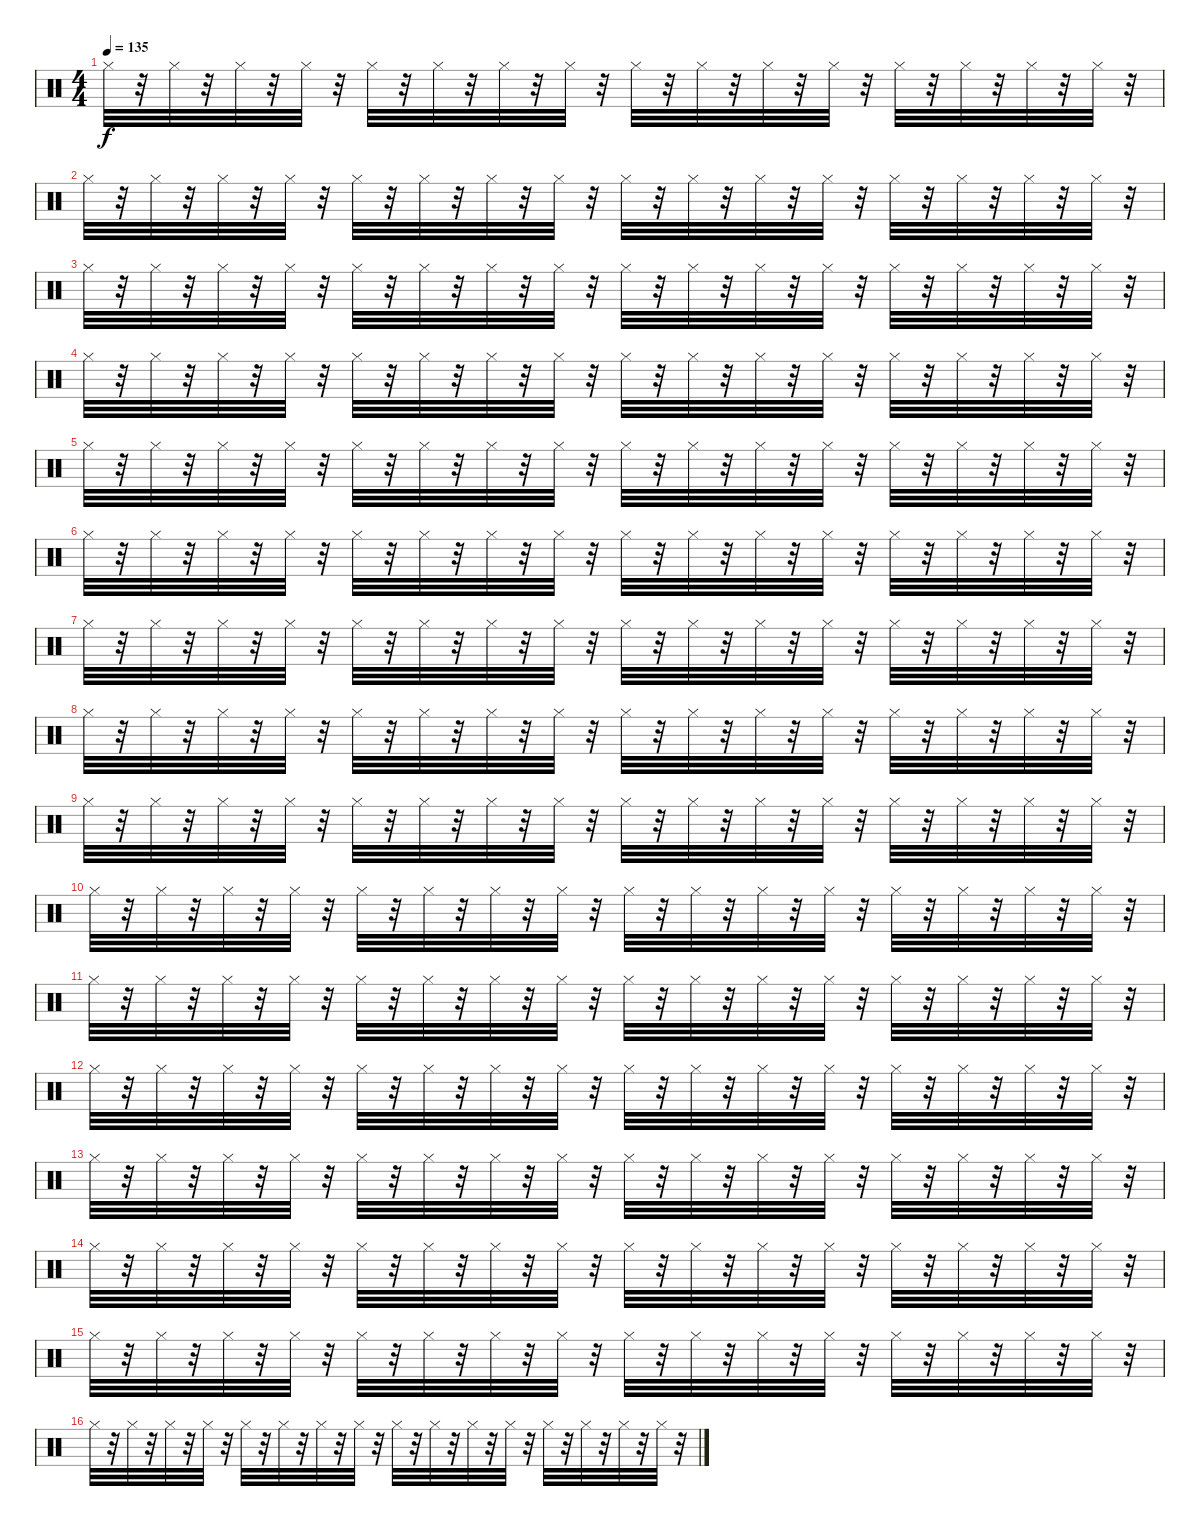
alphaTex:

\track "" {instrument percussion}
\staff {score}
\articulation defaults
\ts (4 4)
\tempo 135
\clef neutral
\ks c "Hi-Hat (closed)".32{dy f}
r.32 "Hi-Hat (closed)".32 r.32 "Hi-Hat (closed)".32 r.32 "Hi-Hat (closed)".32 r.32 "Hi-Hat (closed)".32 r.32 "Hi-Hat (closed)".32 r.32 "Hi-Hat (closed)".32 r.32 "Hi-Hat (closed)".32 r.32 "Hi-Hat (closed)".32 r.32 "Hi-Hat (closed)".32 r.32 "Hi-Hat (closed)".32 r.32 "Hi-Hat (closed)".32 r.32 "Hi-Hat (closed)".32 r.32 "Hi-Hat (closed)".32 r.32 "Hi-Hat (closed)".32 r.32 "Hi-Hat (closed)".32 r.32 |
"Hi-Hat (closed)".32 r.32 "Hi-Hat (closed)".32 r.32 "Hi-Hat (closed)".32 r.32 "Hi-Hat (closed)".32 r.32 "Hi-Hat (closed)".32 r.32 "Hi-Hat (closed)".32 r.32 "Hi-Hat (closed)".32 r.32 "Hi-Hat (closed)".32 r.32 "Hi-Hat (closed)".32 r.32 "Hi-Hat (closed)".32 r.32 "Hi-Hat (closed)".32 r.32 "Hi-Hat (closed)".32 r.32 "Hi-Hat (closed)".32 r.32 "Hi-Hat (closed)".32 r.32 "Hi-Hat (closed)".32 r.32 "Hi-Hat (closed)".32 r.32 |
"Hi-Hat (closed)".32 r.32 "Hi-Hat (closed)".32 r.32 "Hi-Hat (closed)".32 r.32 "Hi-Hat (closed)".32 r.32 "Hi-Hat (closed)".32 r.32 "Hi-Hat (closed)".32 r.32 "Hi-Hat (closed)".32 r.32 "Hi-Hat (closed)".32 r.32 "Hi-Hat (closed)".32 r.32 "Hi-Hat (closed)".32 r.32 "Hi-Hat (closed)".32 r.32 "Hi-Hat (closed)".32 r.32 "Hi-Hat (closed)".32 r.32 "Hi-Hat (closed)".32 r.32 "Hi-Hat (closed)".32 r.32 "Hi-Hat (closed)".32 r.32 |
"Hi-Hat (closed)".32 r.32 "Hi-Hat (closed)".32 r.32 "Hi-Hat (closed)".32 r.32 "Hi-Hat (closed)".32 r.32 "Hi-Hat (closed)".32 r.32 "Hi-Hat (closed)".32 r.32 "Hi-Hat (closed)".32 r.32 "Hi-Hat (closed)".32 r.32 "Hi-Hat (closed)".32 r.32 "Hi-Hat (closed)".32 r.32 "Hi-Hat (closed)".32 r.32 "Hi-Hat (closed)".32 r.32 "Hi-Hat (closed)".32 r.32 "Hi-Hat (closed)".32 r.32 "Hi-Hat (closed)".32 r.32 "Hi-Hat (closed)".32 r.32 |
"Hi-Hat (closed)".32 r.32 "Hi-Hat (closed)".32 r.32 "Hi-Hat (closed)".32 r.32 "Hi-Hat (closed)".32 r.32 "Hi-Hat (closed)".32 r.32 "Hi-Hat (closed)".32 r.32 "Hi-Hat (closed)".32 r.32 "Hi-Hat (closed)".32 r.32 "Hi-Hat (closed)".32 r.32 "Hi-Hat (closed)".32 r.32 "Hi-Hat (closed)".32 r.32 "Hi-Hat (closed)".32 r.32 "Hi-Hat (closed)".32 r.32 "Hi-Hat (closed)".32 r.32 "Hi-Hat (closed)".32 r.32 "Hi-Hat (closed)".32 r.32 |
"Hi-Hat (closed)".32 r.32 "Hi-Hat (closed)".32 r.32 "Hi-Hat (closed)".32 r.32 "Hi-Hat (closed)".32 r.32 "Hi-Hat (closed)".32 r.32 "Hi-Hat (closed)".32 r.32 "Hi-Hat (closed)".32 r.32 "Hi-Hat (closed)".32 r.32 "Hi-Hat (closed)".32 r.32 "Hi-Hat (closed)".32 r.32 "Hi-Hat (closed)".32 r.32 "Hi-Hat (closed)".32 r.32 "Hi-Hat (closed)".32 r.32 "Hi-Hat (closed)".32 r.32 "Hi-Hat (closed)".32 r.32 "Hi-Hat (closed)".32 r.32 |
"Hi-Hat (closed)".32 r.32 "Hi-Hat (closed)".32 r.32 "Hi-Hat (closed)".32 r.32 "Hi-Hat (closed)".32 r.32 "Hi-Hat (closed)".32 r.32 "Hi-Hat (closed)".32 r.32 "Hi-Hat (closed)".32 r.32 "Hi-Hat (closed)".32 r.32 "Hi-Hat (closed)".32 r.32 "Hi-Hat (closed)".32 r.32 "Hi-Hat (closed)".32 r.32 "Hi-Hat (closed)".32 r.32 "Hi-Hat (closed)".32 r.32 "Hi-Hat (closed)".32 r.32 "Hi-Hat (closed)".32 r.32 "Hi-Hat (closed)".32 r.32 |
"Hi-Hat (closed)".32 r.32 "Hi-Hat (closed)".32 r.32 "Hi-Hat (closed)".32 r.32 "Hi-Hat (closed)".32 r.32 "Hi-Hat (closed)".32 r.32 "Hi-Hat (closed)".32 r.32 "Hi-Hat (closed)".32 r.32 "Hi-Hat (closed)".32 r.32 "Hi-Hat (closed)".32 r.32 "Hi-Hat (closed)".32 r.32 "Hi-Hat (closed)".32 r.32 "Hi-Hat (closed)".32 r.32 "Hi-Hat (closed)".32 r.32 "Hi-Hat (closed)".32 r.32 "Hi-Hat (closed)".32 r.32 "Hi-Hat (closed)".32 r.32 |
"Hi-Hat (closed)".32 r.32 "Hi-Hat (closed)".32 r.32 "Hi-Hat (closed)".32 r.32 "Hi-Hat (closed)".32 r.32 "Hi-Hat (closed)".32 r.32 "Hi-Hat (closed)".32 r.32 "Hi-Hat (closed)".32 r.32 "Hi-Hat (closed)".32 r.32 "Hi-Hat (closed)".32 r.32 "Hi-Hat (closed)".32 r.32 "Hi-Hat (closed)".32 r.32 "Hi-Hat (closed)".32 r.32 "Hi-Hat (closed)".32 r.32 "Hi-Hat (closed)".32 r.32 "Hi-Hat (closed)".32 r.32 "Hi-Hat (closed)".32 r.32 |
"Hi-Hat (closed)".32 r.32 "Hi-Hat (closed)".32 r.32 "Hi-Hat (closed)".32 r.32 "Hi-Hat (closed)".32 r.32 "Hi-Hat (closed)".32 r.32 "Hi-Hat (closed)".32 r.32 "Hi-Hat (closed)".32 r.32 "Hi-Hat (closed)".32 r.32 "Hi-Hat (closed)".32 r.32 "Hi-Hat (closed)".32 r.32 "Hi-Hat (closed)".32 r.32 "Hi-Hat (closed)".32 r.32 "Hi-Hat (closed)".32 r.32 "Hi-Hat (closed)".32 r.32 "Hi-Hat (closed)".32 r.32 "Hi-Hat (closed)".32 r.32 |
"Hi-Hat (closed)".32 r.32 "Hi-Hat (closed)".32 r.32 "Hi-Hat (closed)".32 r.32 "Hi-Hat (closed)".32 r.32 "Hi-Hat (closed)".32 r.32 "Hi-Hat (closed)".32 r.32 "Hi-Hat (closed)".32 r.32 "Hi-Hat (closed)".32 r.32 "Hi-Hat (closed)".32 r.32 "Hi-Hat (closed)".32 r.32 "Hi-Hat (closed)".32 r.32 "Hi-Hat (closed)".32 r.32 "Hi-Hat (closed)".32 r.32 "Hi-Hat (closed)".32 r.32 "Hi-Hat (closed)".32 r.32 "Hi-Hat (closed)".32 r.32 |
"Hi-Hat (closed)".32 r.32 "Hi-Hat (closed)".32 r.32 "Hi-Hat (closed)".32 r.32 "Hi-Hat (closed)".32 r.32 "Hi-Hat (closed)".32 r.32 "Hi-Hat (closed)".32 r.32 "Hi-Hat (closed)".32 r.32 "Hi-Hat (closed)".32 r.32 "Hi-Hat (closed)".32 r.32 "Hi-Hat (closed)".32 r.32 "Hi-Hat (closed)".32 r.32 "Hi-Hat (closed)".32 r.32 "Hi-Hat (closed)".32 r.32 "Hi-Hat (closed)".32 r.32 "Hi-Hat (closed)".32 r.32 "Hi-Hat (closed)".32 r.32 |
"Hi-Hat (closed)".32 r.32 "Hi-Hat (closed)".32 r.32 "Hi-Hat (closed)".32 r.32 "Hi-Hat (closed)".32 r.32 "Hi-Hat (closed)".32 r.32 "Hi-Hat (closed)".32 r.32 "Hi-Hat (closed)".32 r.32 "Hi-Hat (closed)".32 r.32 "Hi-Hat (closed)".32 r.32 "Hi-Hat (closed)".32 r.32 "Hi-Hat (closed)".32 r.32 "Hi-Hat (closed)".32 r.32 "Hi-Hat (closed)".32 r.32 "Hi-Hat (closed)".32 r.32 "Hi-Hat (closed)".32 r.32 "Hi-Hat (closed)".32 r.32 |
"Hi-Hat (closed)".32 r.32 "Hi-Hat (closed)".32 r.32 "Hi-Hat (closed)".32 r.32 "Hi-Hat (closed)".32 r.32 "Hi-Hat (closed)".32 r.32 "Hi-Hat (closed)".32 r.32 "Hi-Hat (closed)".32 r.32 "Hi-Hat (closed)".32 r.32 "Hi-Hat (closed)".32 r.32 "Hi-Hat (closed)".32 r.32 "Hi-Hat (closed)".32 r.32 "Hi-Hat (closed)".32 r.32 "Hi-Hat (closed)".32 r.32 "Hi-Hat (closed)".32 r.32 "Hi-Hat (closed)".32 r.32 "Hi-Hat (closed)".32 r.32 |
"Hi-Hat (closed)".32 r.32 "Hi-Hat (closed)".32 r.32 "Hi-Hat (closed)".32 r.32 "Hi-Hat (closed)".32 r.32 "Hi-Hat (closed)".32 r.32 "Hi-Hat (closed)".32 r.32 "Hi-Hat (closed)".32 r.32 "Hi-Hat (closed)".32 r.32 "Hi-Hat (closed)".32 r.32 "Hi-Hat (closed)".32 r.32 "Hi-Hat (closed)".32 r.32 "Hi-Hat (closed)".32 r.32 "Hi-Hat (closed)".32 r.32 "Hi-Hat (closed)".32 r.32 "Hi-Hat (closed)".32 r.32 "Hi-Hat (closed)".32 r.32 |
"Hi-Hat (closed)".32 r.32 "Hi-Hat (closed)".32 r.32 "Hi-Hat (closed)".32 r.32 "Hi-Hat (closed)".32 r.32 "Hi-Hat (closed)".32 r.32 "Hi-Hat (closed)".32 r.32 "Hi-Hat (closed)".32 r.32 "Hi-Hat (closed)".32 r.32 "Hi-Hat (closed)".32 r.32 "Hi-Hat (closed)".32 r.32 "Hi-Hat (closed)".32 r.32 "Hi-Hat (closed)".32 r.32 "Hi-Hat (closed)".32 r.32 "Hi-Hat (closed)".32 r.32 "Hi-Hat (closed)".32 r.32 "Hi-Hat (closed)".32 r.32
